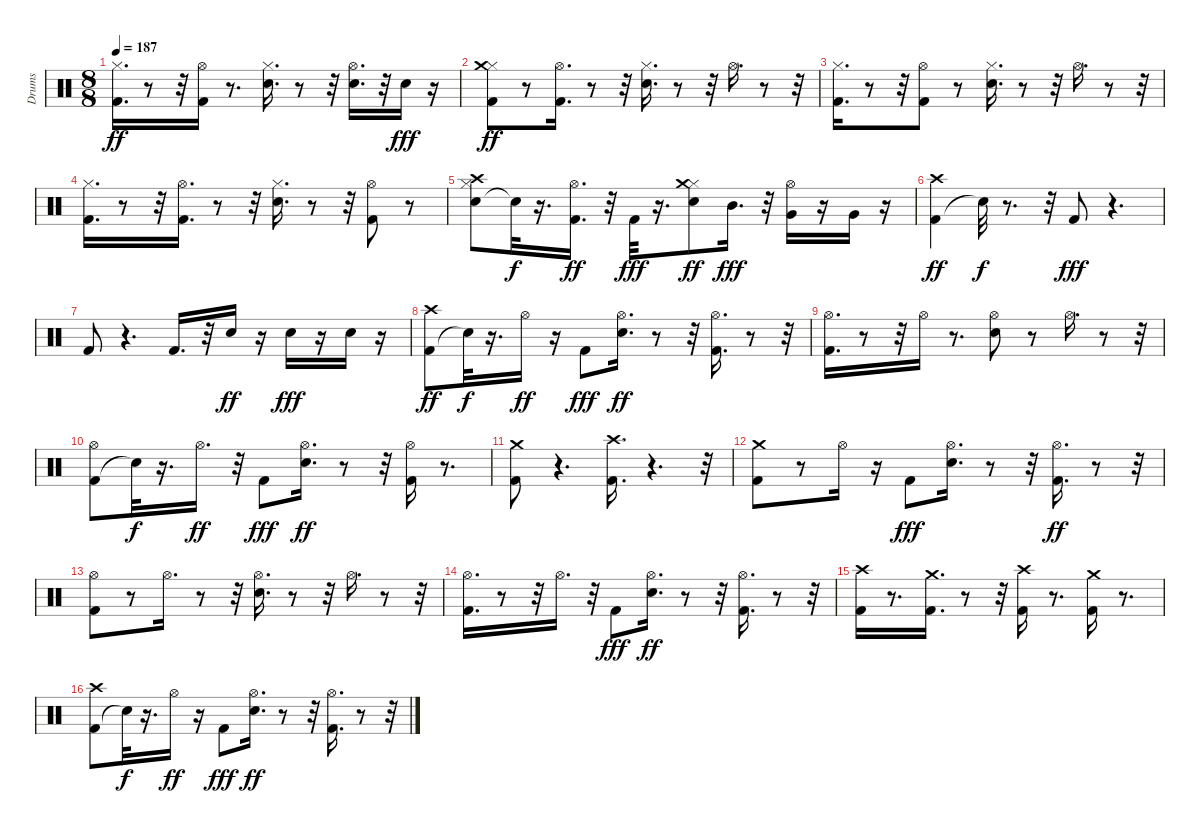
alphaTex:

\track ("Drums" "Drums") {instrument percussion}
\staff {score}
\articulation defaults
\ts (8 8)
\tempo 187
\clef neutral
\ks c
("Kick (hit) 2" "Hi-Hat (closed)").16{d dy ff} r.8 r.32 ("Kick (hit) 2" "Hi-Hat (open)").16 r.8{d} ("Snare (hit) 2" "Hi-Hat (closed)").16{d} r.8 r.32 ("Snare (hit) 2" "Hi-Hat (open)").16{d} r.32 "Snare (hit) 2".16{dy fff} r.16 |
("Kick (hit) 2" "Hi-Hat (closed)" "Crash medium (hit)").8{dy ff} r.8 ("Kick (hit) 2" "Hi-Hat (open)").16{d} r.8 r.32 ("Snare (hit) 2" "Hi-Hat (closed)").16{d} r.8 r.32 "Hi-Hat (open)".16{d} r.8 r.32 |
("Kick (hit) 2" "Hi-Hat (closed)").16{d} r.8 r.32 ("Kick (hit) 2" "Hi-Hat (open)").8 r.8 ("Snare (hit) 2" "Hi-Hat (closed)").16{d} r.8 r.32 "Hi-Hat (open)".16{d} r.8 r.32 |
("Kick (hit) 2" "Hi-Hat (closed)").16{d} r.8 r.32 ("Kick (hit) 2" "Hi-Hat (open)").16{d} r.8 r.32 ("Snare (hit) 2" "Hi-Hat (closed)").16{d} r.8 r.32 ("Kick (hit) 2" "Hi-Hat (open)").8 r.8 |
("Snare (hit) 2" "Hi-Hat (closed)" "Crash high (hit)").8 "Snare (hit)"{t}.32{dy f} r.16{d} ("Kick (hit) 2" "Hi-Hat (open)").16{d dy ff} r.32 "Kick (hit) 2".32{dy fff} r.16{d} ("Snare (hit) 2" "Hi-Hat (closed)" "Crash medium (hit)").8{dy ff} "Mid Tom (hit)".16{d dy fff} r.32 ("Hi-Hat (open)" "Very Low Tom (hit)").16 r.16 "Very Low Tom (hit)".16 r.16 |
("Kick (hit) 2" "Crash high (hit)").4{dy ff} "Snare (hit)"{t}.32{dy f} r.8{d} r.32 "Kick (hit) 2".8{dy fff} r.4{d} |
"Kick (hit) 2".8 r.4{d} "Kick (hit) 2".16{d} r.32 "Snare (hit) 2".16{dy ff} r.16 "Snare (hit) 2".16{dy fff} r.16 "Snare (hit) 2".16 r.16 |
("Kick (hit) 2" "Crash high (hit)").8{dy ff} "Snare (hit)"{t}.32{dy f} r.16{d} "Hi-Hat (open)".16{dy ff} r.16 "Kick (hit) 2".8{dy fff} ("Snare (hit) 2" "Hi-Hat (open)").16{d dy ff} r.8 r.32 ("Kick (hit) 2" "Hi-Hat (open)").16{d} r.8 r.32 |
("Kick (hit) 2" "Hi-Hat (open)").16{d} r.8 r.32 "Hi-Hat (open)".16 r.8{d} ("Snare (hit) 2" "Hi-Hat (open)").8 r.8 "Hi-Hat (open)".16{d} r.8 r.32 |
("Kick (hit) 2" "Hi-Hat (open)").8 "Snare (hit)"{t}.32{dy f} r.16{d} "Hi-Hat (open)".16{d dy ff} r.32 "Kick (hit) 2".8{dy fff} ("Snare (hit) 2" "Hi-Hat (open)").16{d dy ff} r.8 r.32 ("Kick (hit) 2" "Hi-Hat (open)").16 r.8{d} |
("Kick (hit) 2" "Crash medium (hit)").8 r.4{d} ("Kick (hit) 2" "Crash high (hit)").16{d} r.4{d} r.32 |
("Kick (hit) 2" "Crash medium (hit)").8 r.8 "Hi-Hat (open)".16 r.16 "Kick (hit) 2".8{dy fff} ("Snare (hit) 2" "Hi-Hat (open)").16{d} r.8 r.32 ("Kick (hit) 2" "Hi-Hat (open)").16{d dy ff} r.8 r.32 |
("Kick (hit) 2" "Hi-Hat (open)").8 r.8 "Hi-Hat (open)".16{d} r.8 r.32 ("Snare (hit) 2" "Hi-Hat (open)").16{d} r.8 r.32 "Hi-Hat (open)".16{d} r.8 r.32 |
("Kick (hit) 2" "Hi-Hat (open)").16{d} r.8 r.32 "Hi-Hat (open)".16{d} r.32 "Kick (hit) 2".8{dy fff} ("Snare (hit) 2" "Hi-Hat (open)").16{d dy ff} r.8 r.32 ("Kick (hit) 2" "Hi-Hat (open)").16{d} r.8 r.32 |
("Kick (hit) 2" "Crash high (hit)").16 r.8{d} ("Kick (hit) 2" "Crash medium (hit)").16{d} r.8 r.32 ("Kick (hit) 2" "Crash high (hit)").16 r.8{d} ("Kick (hit) 2" "Crash medium (hit)").16 r.8{d} |
("Kick (hit) 2" "Crash high (hit)").8 "Snare (hit)"{t}.32{dy f} r.16{d} "Hi-Hat (open)".16{dy ff} r.16 "Kick (hit) 2".8{dy fff} ("Snare (hit) 2" "Hi-Hat (open)").16{d dy ff} r.8 r.32 ("Kick (hit) 2" "Hi-Hat (open)").16{d} r.8 r.32
